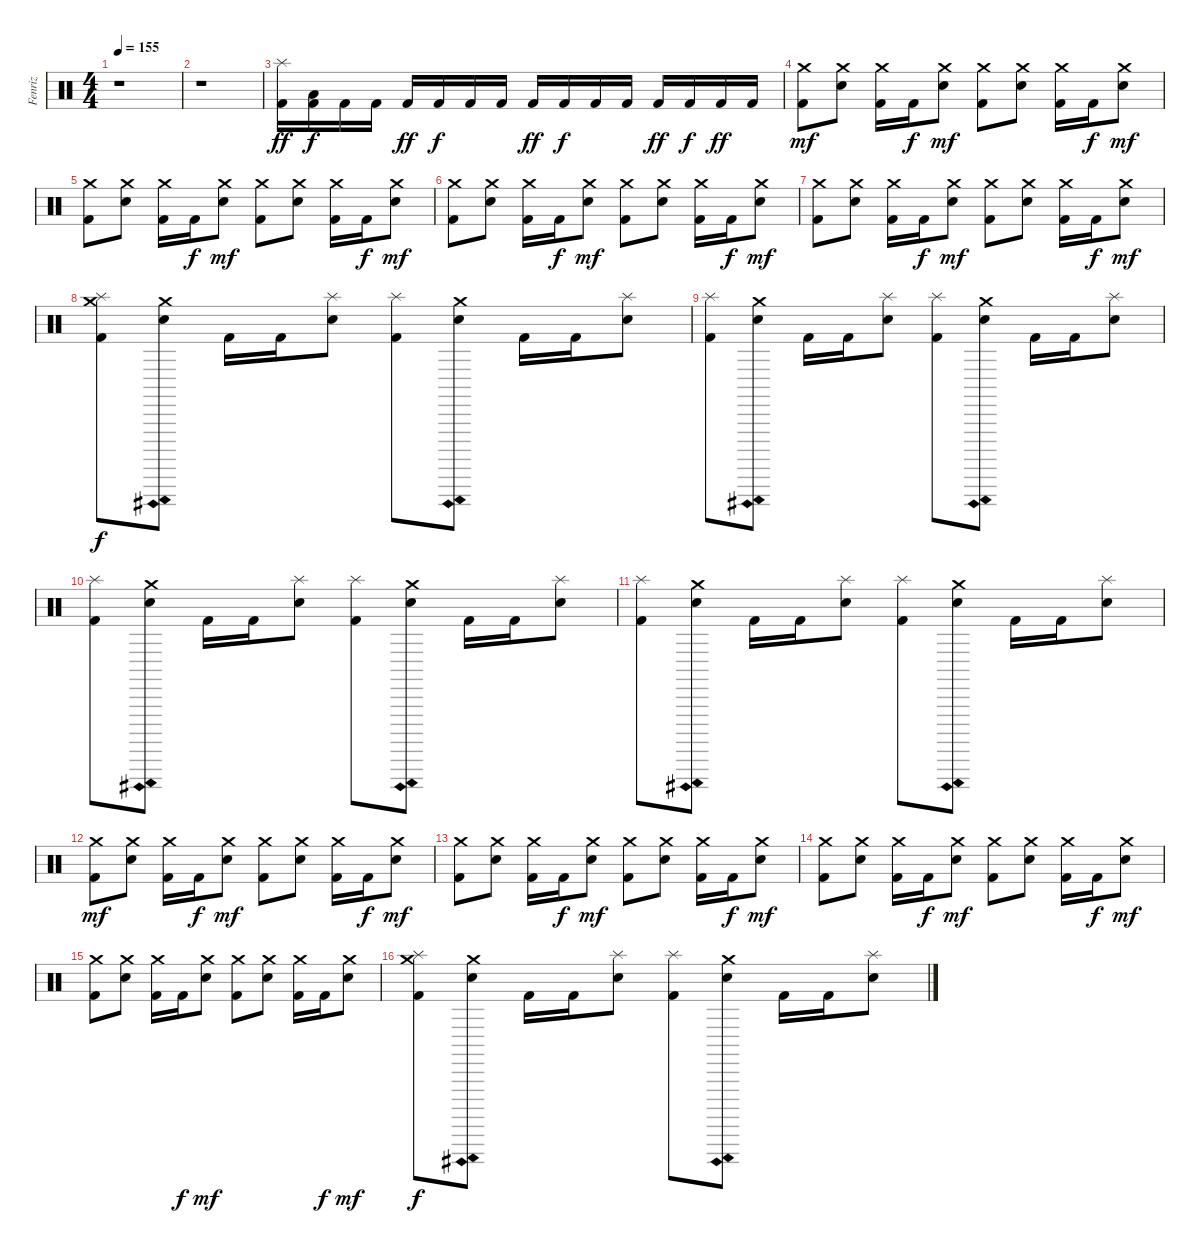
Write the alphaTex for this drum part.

\track ("Fenriz" "Fenriz") {instrument percussion}
\staff {score}
\articulation defaults
\ts (4 4)
\tempo 155
\clef neutral
\ks c
r.1{dy mp} |
r.1 |
("Kick (hit) 2" "Splash (hit)").16{dy ff} ("Kick (hit) 2" "Low Tom (hit)").16{dy f} "Kick (hit) 2".16 "Kick (hit) 2".16 "Kick (hit) 2".16{dy ff} "Kick (hit) 2".16{dy f} "Kick (hit) 2".16 "Kick (hit) 2".16 "Kick (hit) 2".16{dy ff} "Kick (hit) 2".16{dy f} "Kick (hit) 2".16 "Kick (hit) 2".16 "Kick (hit) 2".16{dy ff} "Kick (hit) 2".16{dy f} "Kick (hit) 2".16{dy ff} "Kick (hit) 2".16 |
("Kick (hit) 2" "Crash medium (hit)").8{dy mf} ("Electric Snare (hit)" "Crash medium (hit)").8 ("Kick (hit) 2" "Crash medium (hit)").16 "Kick (hit) 2".16{dy f} ("Electric Snare (hit)" "Crash medium (hit)").8{dy mf} ("Kick (hit) 2" "Crash medium (hit)").8 ("Electric Snare (hit)" "Crash medium (hit)").8 ("Kick (hit) 2" "Crash medium (hit)").16 "Kick (hit) 2".16{dy f} ("Electric Snare (hit)" "Crash medium (hit)").8{dy mf} |
("Kick (hit) 2" "Crash medium (hit)").8 ("Electric Snare (hit)" "Crash medium (hit)").8 ("Kick (hit) 2" "Crash medium (hit)").16 "Kick (hit) 2".16{dy f} ("Electric Snare (hit)" "Crash medium (hit)").8{dy mf} ("Kick (hit) 2" "Crash medium (hit)").8 ("Electric Snare (hit)" "Crash medium (hit)").8 ("Kick (hit) 2" "Crash medium (hit)").16 "Kick (hit) 2".16{dy f} ("Electric Snare (hit)" "Crash medium (hit)").8{dy mf} |
("Kick (hit) 2" "Crash medium (hit)").8 ("Electric Snare (hit)" "Crash medium (hit)").8 ("Kick (hit) 2" "Crash medium (hit)").16 "Kick (hit) 2".16{dy f} ("Electric Snare (hit)" "Crash medium (hit)").8{dy mf} ("Kick (hit) 2" "Crash medium (hit)").8 ("Electric Snare (hit)" "Crash medium (hit)").8 ("Kick (hit) 2" "Crash medium (hit)").16 "Kick (hit) 2".16{dy f} ("Electric Snare (hit)" "Crash medium (hit)").8{dy mf} |
("Kick (hit) 2" "Crash medium (hit)").8 ("Electric Snare (hit)" "Crash medium (hit)").8 ("Kick (hit) 2" "Crash medium (hit)").16 "Kick (hit) 2".16{dy f} ("Electric Snare (hit)" "Crash medium (hit)").8{dy mf} ("Kick (hit) 2" "Crash medium (hit)").8 ("Electric Snare (hit)" "Crash medium (hit)").8 ("Kick (hit) 2" "Crash medium (hit)").16 "Kick (hit) 2".16{dy f} ("Electric Snare (hit)" "Crash medium (hit)").8{dy mf} |
("Kick (hit) 2" "Crash medium (hit)" "Splash (hit)").8{dy f} ("Electric Snare (hit)"{ah 12} "Crash medium (hit)"{ah 12}).8 "Kick (hit) 2".16 "Kick (hit) 2".16 ("Electric Snare (hit)" "Splash (hit)").8 ("Kick (hit) 2" "Splash (hit)").8 ("Electric Snare (hit)"{ah 12} "Crash medium (hit)"{ah 12}).8 "Kick (hit) 2".16 "Kick (hit) 2".16 ("Electric Snare (hit)" "Splash (hit)").8 |
("Kick (hit) 2" "Splash (hit)").8 ("Electric Snare (hit)"{ah 12} "Crash medium (hit)"{ah 12}).8 "Kick (hit) 2".16 "Kick (hit) 2".16 ("Electric Snare (hit)" "Splash (hit)").8 ("Kick (hit) 2" "Splash (hit)").8 ("Electric Snare (hit)"{ah 12} "Crash medium (hit)"{ah 12}).8 "Kick (hit) 2".16 "Kick (hit) 2".16 ("Electric Snare (hit)" "Splash (hit)").8 |
("Kick (hit) 2" "Splash (hit)").8 ("Electric Snare (hit)"{ah 12} "Crash medium (hit)"{ah 12}).8 "Kick (hit) 2".16 "Kick (hit) 2".16 ("Electric Snare (hit)" "Splash (hit)").8 ("Kick (hit) 2" "Splash (hit)").8 ("Electric Snare (hit)"{ah 12} "Crash medium (hit)"{ah 12}).8 "Kick (hit) 2".16 "Kick (hit) 2".16 ("Electric Snare (hit)" "Splash (hit)").8 |
("Kick (hit) 2" "Splash (hit)").8 ("Electric Snare (hit)"{ah 12} "Crash medium (hit)"{ah 12}).8 "Kick (hit) 2".16 "Kick (hit) 2".16 ("Electric Snare (hit)" "Splash (hit)").8 ("Kick (hit) 2" "Splash (hit)").8 ("Electric Snare (hit)"{ah 12} "Crash medium (hit)"{ah 12}).8 "Kick (hit) 2".16 "Kick (hit) 2".16 ("Electric Snare (hit)" "Splash (hit)").8 |
("Kick (hit) 2" "Crash medium (hit)").8{dy mf} ("Electric Snare (hit)" "Crash medium (hit)").8 ("Kick (hit) 2" "Crash medium (hit)").16 "Kick (hit) 2".16{dy f} ("Electric Snare (hit)" "Crash medium (hit)").8{dy mf} ("Kick (hit) 2" "Crash medium (hit)").8 ("Electric Snare (hit)" "Crash medium (hit)").8 ("Kick (hit) 2" "Crash medium (hit)").16 "Kick (hit) 2".16{dy f} ("Electric Snare (hit)" "Crash medium (hit)").8{dy mf} |
("Kick (hit) 2" "Crash medium (hit)").8 ("Electric Snare (hit)" "Crash medium (hit)").8 ("Kick (hit) 2" "Crash medium (hit)").16 "Kick (hit) 2".16{dy f} ("Electric Snare (hit)" "Crash medium (hit)").8{dy mf} ("Kick (hit) 2" "Crash medium (hit)").8 ("Electric Snare (hit)" "Crash medium (hit)").8 ("Kick (hit) 2" "Crash medium (hit)").16 "Kick (hit) 2".16{dy f} ("Electric Snare (hit)" "Crash medium (hit)").8{dy mf} |
("Kick (hit) 2" "Crash medium (hit)").8 ("Electric Snare (hit)" "Crash medium (hit)").8 ("Kick (hit) 2" "Crash medium (hit)").16 "Kick (hit) 2".16{dy f} ("Electric Snare (hit)" "Crash medium (hit)").8{dy mf} ("Kick (hit) 2" "Crash medium (hit)").8 ("Electric Snare (hit)" "Crash medium (hit)").8 ("Kick (hit) 2" "Crash medium (hit)").16 "Kick (hit) 2".16{dy f} ("Electric Snare (hit)" "Crash medium (hit)").8{dy mf} |
("Kick (hit) 2" "Crash medium (hit)").8 ("Electric Snare (hit)" "Crash medium (hit)").8 ("Kick (hit) 2" "Crash medium (hit)").16 "Kick (hit) 2".16{dy f} ("Electric Snare (hit)" "Crash medium (hit)").8{dy mf} ("Kick (hit) 2" "Crash medium (hit)").8 ("Electric Snare (hit)" "Crash medium (hit)").8 ("Kick (hit) 2" "Crash medium (hit)").16 "Kick (hit) 2".16{dy f} ("Electric Snare (hit)" "Crash medium (hit)").8{dy mf} |
("Kick (hit) 2" "Crash medium (hit)" "Splash (hit)").8{dy f} ("Electric Snare (hit)"{ah 12} "Crash medium (hit)"{ah 12}).8 "Kick (hit) 2".16 "Kick (hit) 2".16 ("Electric Snare (hit)" "Splash (hit)").8 ("Kick (hit) 2" "Splash (hit)").8 ("Electric Snare (hit)"{ah 12} "Crash medium (hit)"{ah 12}).8 "Kick (hit) 2".16 "Kick (hit) 2".16 ("Electric Snare (hit)" "Splash (hit)").8
